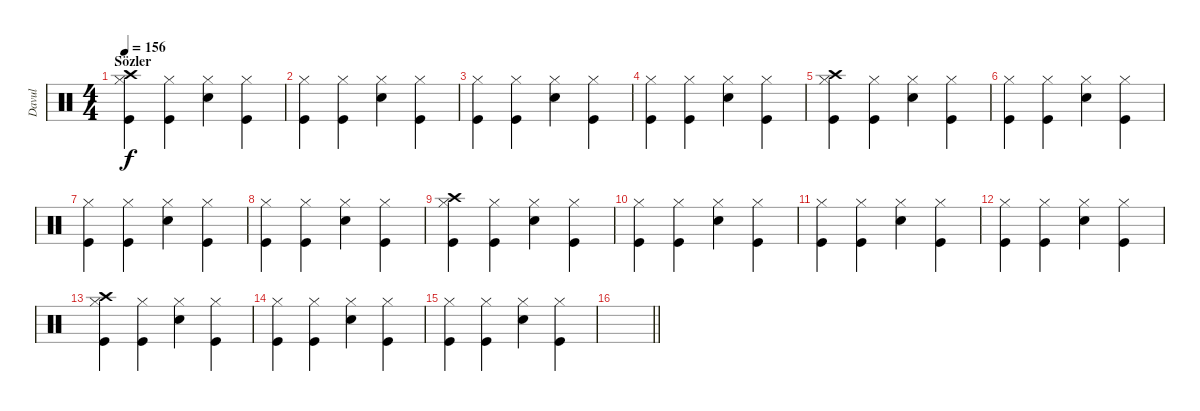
\track ("Davul" "Davul") {instrument percussion}
\staff {score}
\articulation defaults
\ts (4 4)
\section ("" "Sözler")
\tempo 156
\clef neutral
\ks c
("Hi-Hat (closed)" "Kick (hit)" "Crash high (hit)").4{dy f} ("Hi-Hat (closed)" "Kick (hit)").4 ("Hi-Hat (closed)" "Snare (hit) 2").4 ("Hi-Hat (closed)" "Kick (hit)").4 |
("Hi-Hat (closed)" "Kick (hit)").4 ("Hi-Hat (closed)" "Kick (hit)").4 ("Hi-Hat (closed)" "Snare (hit) 2").4 ("Hi-Hat (closed)" "Kick (hit)").4 |
("Hi-Hat (closed)" "Kick (hit)").4 ("Hi-Hat (closed)" "Kick (hit)").4 ("Hi-Hat (closed)" "Snare (hit) 2").4 ("Hi-Hat (closed)" "Kick (hit)").4 |
("Hi-Hat (closed)" "Kick (hit)").4 ("Hi-Hat (closed)" "Kick (hit)").4 ("Hi-Hat (closed)" "Snare (hit) 2").4 ("Hi-Hat (closed)" "Kick (hit)").4 |
("Hi-Hat (closed)" "Kick (hit)" "Crash high (hit)").4 ("Hi-Hat (closed)" "Kick (hit)").4 ("Hi-Hat (closed)" "Snare (hit) 2").4 ("Hi-Hat (closed)" "Kick (hit)").4 |
("Hi-Hat (closed)" "Kick (hit)").4 ("Hi-Hat (closed)" "Kick (hit)").4 ("Hi-Hat (closed)" "Snare (hit) 2").4 ("Hi-Hat (closed)" "Kick (hit)").4 |
("Hi-Hat (closed)" "Kick (hit)").4 ("Hi-Hat (closed)" "Kick (hit)").4 ("Hi-Hat (closed)" "Snare (hit) 2").4 ("Hi-Hat (closed)" "Kick (hit)").4 |
("Hi-Hat (closed)" "Kick (hit)").4 ("Hi-Hat (closed)" "Kick (hit)").4 ("Hi-Hat (closed)" "Snare (hit) 2").4 ("Hi-Hat (closed)" "Kick (hit)").4 |
("Hi-Hat (closed)" "Kick (hit)" "Crash high (hit)").4 ("Hi-Hat (closed)" "Kick (hit)").4 ("Hi-Hat (closed)" "Snare (hit) 2").4 ("Hi-Hat (closed)" "Kick (hit)").4 |
("Hi-Hat (closed)" "Kick (hit)").4 ("Hi-Hat (closed)" "Kick (hit)").4 ("Hi-Hat (closed)" "Snare (hit) 2").4 ("Hi-Hat (closed)" "Kick (hit)").4 |
("Hi-Hat (closed)" "Kick (hit)").4 ("Hi-Hat (closed)" "Kick (hit)").4 ("Hi-Hat (closed)" "Snare (hit) 2").4 ("Hi-Hat (closed)" "Kick (hit)").4 |
("Hi-Hat (closed)" "Kick (hit)").4 ("Hi-Hat (closed)" "Kick (hit)").4 ("Hi-Hat (closed)" "Snare (hit) 2").4 ("Hi-Hat (closed)" "Kick (hit)").4 |
("Hi-Hat (closed)" "Kick (hit)" "Crash high (hit)").4 ("Hi-Hat (closed)" "Kick (hit)").4 ("Hi-Hat (closed)" "Snare (hit) 2").4 ("Hi-Hat (closed)" "Kick (hit)").4 |
("Hi-Hat (closed)" "Kick (hit)").4 ("Hi-Hat (closed)" "Kick (hit)").4 ("Hi-Hat (closed)" "Snare (hit) 2").4 ("Hi-Hat (closed)" "Kick (hit)").4 |
("Hi-Hat (closed)" "Kick (hit)").4 ("Hi-Hat (closed)" "Kick (hit)").4 ("Hi-Hat (closed)" "Snare (hit) 2").4 ("Hi-Hat (closed)" "Kick (hit)").4 |
\barLineRight lightlight
